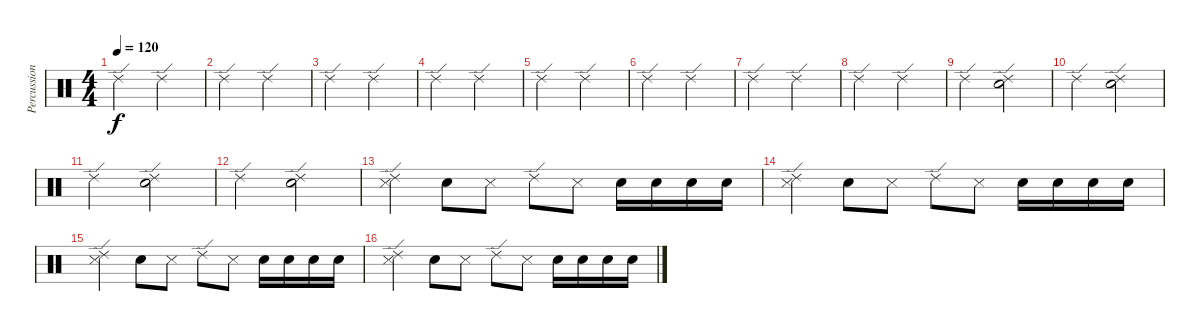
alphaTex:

\track ("Percussions" "Percussion") {instrument percussion}
\staff {score}
\articulation defaults
\ts (4 4)
\tempo 120
\clef neutral
\ks c "Ride (edge) 2".2{dy f} "Ride (edge) 2".2
|
"Ride (edge) 2".2 "Ride (edge) 2".2 |
"Ride (edge) 2".2 "Ride (edge) 2".2 |
"Ride (edge) 2".2 "Ride (edge) 2".2 |
"Ride (edge) 2".2 "Ride (edge) 2".2 |
"Ride (edge) 2".2 "Ride (edge) 2".2 |
"Ride (edge) 2".2 "Ride (edge) 2".2 |
"Ride (edge) 2".2 "Ride (edge) 2".2 |
"Ride (edge) 2".2 ("Electric Snare (hit)" "Ride (edge) 2").2 |
"Ride (edge) 2".2 ("Electric Snare (hit)" "Ride (edge) 2").2 |
"Ride (edge) 2".2 ("Electric Snare (hit)" "Ride (edge) 2").2 |
"Ride (edge) 2".2 ("Electric Snare (hit)" "Ride (edge) 2").2 |
("Snare (side stick) 3" "Ride (edge) 2").4 "Electric Snare (hit)".8 "Snare (side stick) 3".8 "Ride (edge) 2".8 "Snare (side stick) 3".8 "Electric Snare (hit)".16 "Electric Snare (hit)".16 "Electric Snare (hit)".16 "Electric Snare (hit)".16 |
("Snare (side stick) 3" "Ride (edge) 2").4 "Electric Snare (hit)".8 "Snare (side stick) 3".8 "Ride (edge) 2".8 "Snare (side stick) 3".8 "Electric Snare (hit)".16 "Electric Snare (hit)".16 "Electric Snare (hit)".16 "Electric Snare (hit)".16 |
("Snare (side stick) 3" "Ride (edge) 2").4 "Electric Snare (hit)".8 "Snare (side stick) 3".8 "Ride (edge) 2".8 "Snare (side stick) 3".8 "Electric Snare (hit)".16 "Electric Snare (hit)".16 "Electric Snare (hit)".16 "Electric Snare (hit)".16 |
("Snare (side stick) 3" "Ride (edge) 2").4 "Electric Snare (hit)".8 "Snare (side stick) 3".8 "Ride (edge) 2".8 "Snare (side stick) 3".8 "Electric Snare (hit)".16 "Electric Snare (hit)".16 "Electric Snare (hit)".16 "Electric Snare (hit)".16
